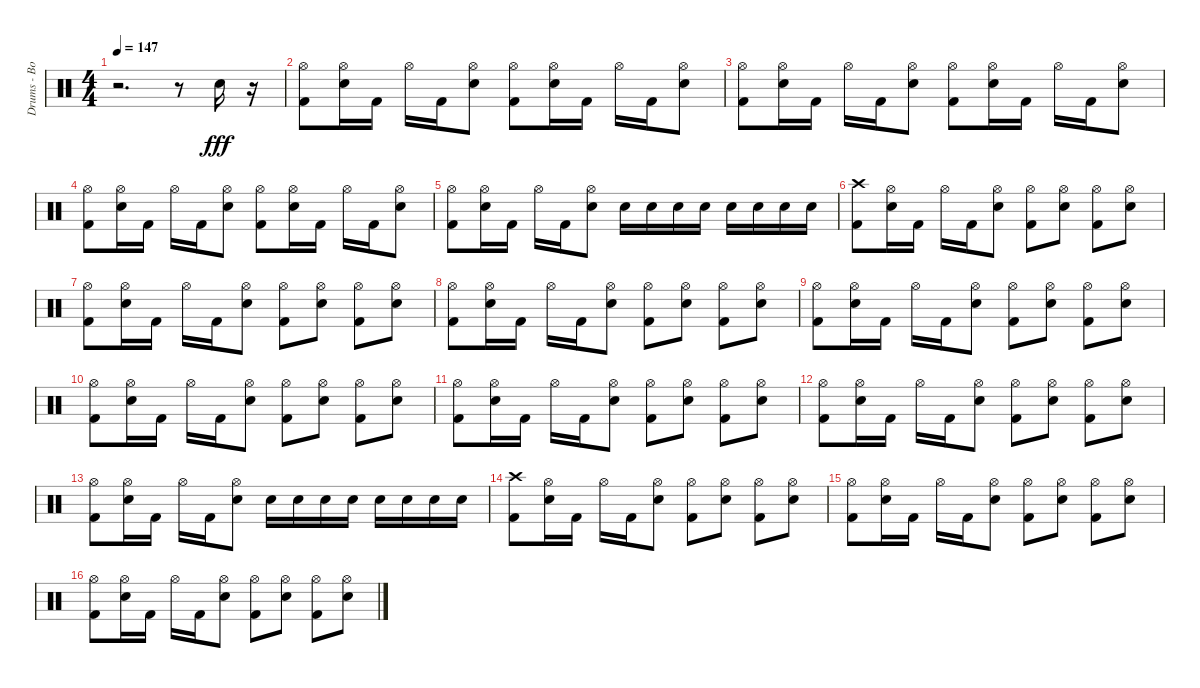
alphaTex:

\track ("Drums - Bobby Schayer" "Drums - Bo") {instrument percussion}
\staff {score}
\articulation defaults
\ts (4 4)
\tempo 147
\clef neutral
\ks c
r.2{d dy fff} r.8 "Electric Snare (hit)".16 r.16 |
("Hi-Hat (open)" "Kick (hit) 2").8 ("Electric Snare (hit)" "Hi-Hat (open)").16 "Kick (hit) 2".16 "Hi-Hat (open)".16 "Kick (hit) 2".16 ("Electric Snare (hit)" "Hi-Hat (open)").8 ("Kick (hit) 2" "Hi-Hat (open)").8 ("Electric Snare (hit)" "Hi-Hat (open)").16 "Kick (hit) 2".16 "Hi-Hat (open)".16 "Kick (hit) 2".16 ("Electric Snare (hit)" "Hi-Hat (open)").8 |
("Hi-Hat (open)" "Kick (hit) 2").8 ("Electric Snare (hit)" "Hi-Hat (open)").16 "Kick (hit) 2".16 "Hi-Hat (open)".16 "Kick (hit) 2".16 ("Electric Snare (hit)" "Hi-Hat (open)").8 ("Hi-Hat (open)" "Kick (hit) 2").8 ("Electric Snare (hit)" "Hi-Hat (open)").16 "Kick (hit) 2".16 "Hi-Hat (open)".16 "Kick (hit) 2".16 ("Electric Snare (hit)" "Hi-Hat (open)").8 |
("Hi-Hat (open)" "Kick (hit) 2").8 ("Electric Snare (hit)" "Hi-Hat (open)").16 "Kick (hit) 2".16 "Hi-Hat (open)".16 "Kick (hit) 2".16 ("Electric Snare (hit)" "Hi-Hat (open)").8 ("Hi-Hat (open)" "Kick (hit) 2").8 ("Electric Snare (hit)" "Hi-Hat (open)").16 "Kick (hit) 2".16 "Hi-Hat (open)".16 "Kick (hit) 2".16 ("Electric Snare (hit)" "Hi-Hat (open)").8 |
("Hi-Hat (open)" "Kick (hit) 2").8 ("Electric Snare (hit)" "Hi-Hat (open)").16 "Kick (hit) 2".16 "Hi-Hat (open)".16 "Kick (hit) 2".16 ("Electric Snare (hit)" "Hi-Hat (open)").8 "Electric Snare (hit)".16 "Electric Snare (hit)".16 "Electric Snare (hit)".16 "Electric Snare (hit)".16 "Electric Snare (hit)".16 "Electric Snare (hit)".16 "Electric Snare (hit)".16 "Electric Snare (hit)".16 |
("Crash high (hit)" "Kick (hit) 2").8 ("Electric Snare (hit)" "Hi-Hat (open)").16 "Kick (hit) 2".16 "Hi-Hat (open)".16 "Kick (hit) 2".16 ("Electric Snare (hit)" "Hi-Hat (open)").8 ("Kick (hit) 2" "Hi-Hat (open)").8 ("Electric Snare (hit)" "Hi-Hat (open)").8 ("Kick (hit) 2" "Hi-Hat (open)").8 ("Electric Snare (hit)" "Hi-Hat (open)").8 |
("Kick (hit) 2" "Hi-Hat (open)").8 ("Electric Snare (hit)" "Hi-Hat (open)").16 "Kick (hit) 2".16 "Hi-Hat (open)".16 "Kick (hit) 2".16 ("Electric Snare (hit)" "Hi-Hat (open)").8 ("Kick (hit) 2" "Hi-Hat (open)").8 ("Electric Snare (hit)" "Hi-Hat (open)").8 ("Kick (hit) 2" "Hi-Hat (open)").8 ("Electric Snare (hit)" "Hi-Hat (open)").8 |
("Hi-Hat (open)" "Kick (hit) 2").8 ("Electric Snare (hit)" "Hi-Hat (open)").16 "Kick (hit) 2".16 "Hi-Hat (open)".16 "Kick (hit) 2".16 ("Electric Snare (hit)" "Hi-Hat (open)").8 ("Kick (hit) 2" "Hi-Hat (open)").8 ("Electric Snare (hit)" "Hi-Hat (open)").8 ("Kick (hit) 2" "Hi-Hat (open)").8 ("Electric Snare (hit)" "Hi-Hat (open)").8 |
("Hi-Hat (open)" "Kick (hit) 2").8 ("Electric Snare (hit)" "Hi-Hat (open)").16 "Kick (hit) 2".16 "Hi-Hat (open)".16 "Kick (hit) 2".16 ("Electric Snare (hit)" "Hi-Hat (open)").8 ("Kick (hit) 2" "Hi-Hat (open)").8 ("Electric Snare (hit)" "Hi-Hat (open)").8 ("Kick (hit) 2" "Hi-Hat (open)").8 ("Electric Snare (hit)" "Hi-Hat (open)").8 |
("Kick (hit) 2" "Hi-Hat (open)").8 ("Electric Snare (hit)" "Hi-Hat (open)").16 "Kick (hit) 2".16 "Hi-Hat (open)".16 "Kick (hit) 2".16 ("Electric Snare (hit)" "Hi-Hat (open)").8 ("Kick (hit) 2" "Hi-Hat (open)").8 ("Electric Snare (hit)" "Hi-Hat (open)").8 ("Kick (hit) 2" "Hi-Hat (open)").8 ("Electric Snare (hit)" "Hi-Hat (open)").8 |
("Kick (hit) 2" "Hi-Hat (open)").8 ("Electric Snare (hit)" "Hi-Hat (open)").16 "Kick (hit) 2".16 "Hi-Hat (open)".16 "Kick (hit) 2".16 ("Electric Snare (hit)" "Hi-Hat (open)").8 ("Kick (hit) 2" "Hi-Hat (open)").8 ("Electric Snare (hit)" "Hi-Hat (open)").8 ("Kick (hit) 2" "Hi-Hat (open)").8 ("Electric Snare (hit)" "Hi-Hat (open)").8 |
("Kick (hit) 2" "Hi-Hat (open)").8 ("Electric Snare (hit)" "Hi-Hat (open)").16 "Kick (hit) 2".16 "Hi-Hat (open)".16 "Kick (hit) 2".16 ("Electric Snare (hit)" "Hi-Hat (open)").8 ("Kick (hit) 2" "Hi-Hat (open)").8 ("Electric Snare (hit)" "Hi-Hat (open)").8 ("Kick (hit) 2" "Hi-Hat (open)").8 ("Electric Snare (hit)" "Hi-Hat (open)").8 |
("Kick (hit) 2" "Hi-Hat (open)").8 ("Electric Snare (hit)" "Hi-Hat (open)").16 "Kick (hit) 2".16 "Hi-Hat (open)".16 "Kick (hit) 2".16 ("Electric Snare (hit)" "Hi-Hat (open)").8 "Electric Snare (hit)".16 "Electric Snare (hit)".16 "Electric Snare (hit)".16 "Electric Snare (hit)".16 "Electric Snare (hit)".16 "Electric Snare (hit)".16 "Electric Snare (hit)".16 "Electric Snare (hit)".16 |
("Crash high (hit)" "Kick (hit) 2").8 ("Electric Snare (hit)" "Hi-Hat (open)").16 "Kick (hit) 2".16 "Hi-Hat (open)".16 "Kick (hit) 2".16 ("Electric Snare (hit)" "Hi-Hat (open)").8 ("Kick (hit) 2" "Hi-Hat (open)").8 ("Electric Snare (hit)" "Hi-Hat (open)").8 ("Kick (hit) 2" "Hi-Hat (open)").8 ("Electric Snare (hit)" "Hi-Hat (open)").8 |
("Kick (hit) 2" "Hi-Hat (open)").8 ("Electric Snare (hit)" "Hi-Hat (open)").16 "Kick (hit) 2".16 "Hi-Hat (open)".16 "Kick (hit) 2".16 ("Electric Snare (hit)" "Hi-Hat (open)").8 ("Kick (hit) 2" "Hi-Hat (open)").8 ("Electric Snare (hit)" "Hi-Hat (open)").8 ("Kick (hit) 2" "Hi-Hat (open)").8 ("Electric Snare (hit)" "Hi-Hat (open)").8 |
("Hi-Hat (open)" "Kick (hit) 2").8 ("Electric Snare (hit)" "Hi-Hat (open)").16 "Kick (hit) 2".16 "Hi-Hat (open)".16 "Kick (hit) 2".16 ("Electric Snare (hit)" "Hi-Hat (open)").8 ("Kick (hit) 2" "Hi-Hat (open)").8 ("Electric Snare (hit)" "Hi-Hat (open)").8 ("Kick (hit) 2" "Hi-Hat (open)").8 ("Electric Snare (hit)" "Hi-Hat (open)").8
